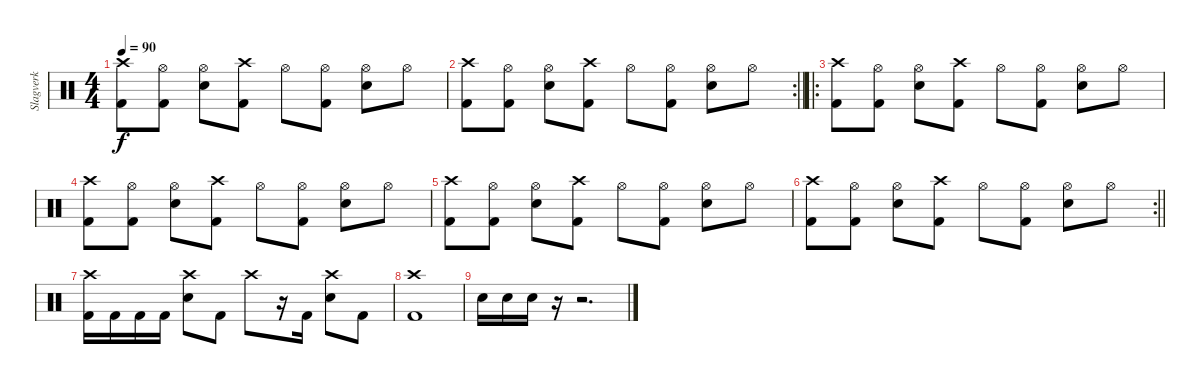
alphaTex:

\track ("Slagverk" "Slagverk") {instrument percussion}
\staff {score}
\articulation defaults
\ts (4 4)
\tempo 90
\clef neutral
\ks c
("Kick (hit) 2" "Crash high (hit)").8{dy f} ("Kick (hit) 2" "Hi-Hat (open)").8 ("Hi-Hat (open)" "Snare (hit) 2").8 ("Kick (hit) 2" "Crash high (hit)").8 "Hi-Hat (open)".8 ("Kick (hit) 2" "Hi-Hat (open)").8 ("Hi-Hat (open)" "Snare (hit) 2").8 "Hi-Hat (open)".8 |
\rc 2
\barLineRight lightlight
("Kick (hit) 2" "Crash high (hit)").8 ("Kick (hit) 2" "Hi-Hat (open)").8 ("Hi-Hat (open)" "Snare (hit) 2").8 ("Kick (hit) 2" "Crash high (hit)").8 "Hi-Hat (open)".8 ("Kick (hit) 2" "Hi-Hat (open)").8 ("Hi-Hat (open)" "Snare (hit) 2").8 "Hi-Hat (open)".8 |
\ro
("Kick (hit) 2" "Crash high (hit)").8 ("Kick (hit) 2" "Hi-Hat (open)").8 ("Hi-Hat (open)" "Snare (hit) 2").8 ("Kick (hit) 2" "Crash high (hit)").8 "Hi-Hat (open)".8 ("Kick (hit) 2" "Hi-Hat (open)").8 ("Hi-Hat (open)" "Snare (hit) 2").8 "Hi-Hat (open)".8 |
("Kick (hit) 2" "Crash high (hit)").8 ("Kick (hit) 2" "Hi-Hat (open)").8 ("Hi-Hat (open)" "Snare (hit) 2").8 ("Kick (hit) 2" "Crash high (hit)").8 "Hi-Hat (open)".8 ("Kick (hit) 2" "Hi-Hat (open)").8 ("Hi-Hat (open)" "Snare (hit) 2").8 "Hi-Hat (open)".8 |
("Kick (hit) 2" "Crash high (hit)").8 ("Kick (hit) 2" "Hi-Hat (open)").8 ("Hi-Hat (open)" "Snare (hit) 2").8 ("Kick (hit) 2" "Crash high (hit)").8 "Hi-Hat (open)".8 ("Kick (hit) 2" "Hi-Hat (open)").8 ("Hi-Hat (open)" "Snare (hit) 2").8 "Hi-Hat (open)".8 |
\rc 2
\barLineRight lightlight
("Kick (hit) 2" "Crash high (hit)").8 ("Kick (hit) 2" "Hi-Hat (open)").8 ("Hi-Hat (open)" "Snare (hit) 2").8 ("Kick (hit) 2" "Crash high (hit)").8 "Hi-Hat (open)".8 ("Kick (hit) 2" "Hi-Hat (open)").8 ("Hi-Hat (open)" "Snare (hit) 2").8 "Hi-Hat (open)".8 |
("Kick (hit) 2" "Crash high (hit)").16 "Kick (hit) 2".16 "Kick (hit) 2".16 "Kick (hit) 2".16 ("Crash high (hit)" "Snare (hit) 2").8 "Kick (hit) 2".8 "Crash high (hit)".8 r.16 "Kick (hit) 2".16 ("Crash high (hit)" "Snare (hit) 2").8 "Kick (hit) 2".8 |
("Kick (hit) 2" "Crash high (hit)").1 |
"Snare (hit) 2".16 "Snare (hit) 2".16 "Snare (hit) 2".16 r.16 r.2{d}
